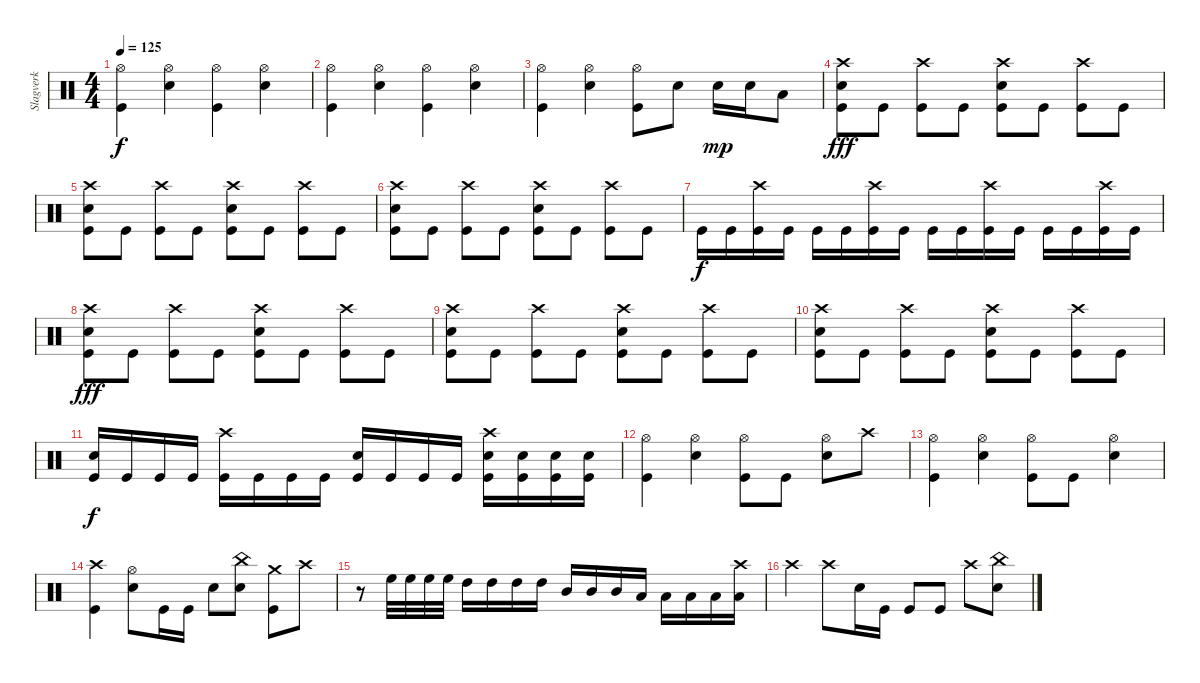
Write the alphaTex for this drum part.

\track ("Slagverk" "Slagverk") {instrument percussion}
\staff {score}
\articulation defaults
\ts (4 4)
\tempo 125
\clef neutral
\ks c
("Hi-Hat (open)" "Kick (hit)").4{dy f} ("Hi-Hat (open)" "Snare (hit) 2").4 ("Hi-Hat (open)" "Kick (hit)").4 ("Hi-Hat (open)" "Snare (hit) 2").4 |
("Hi-Hat (open)" "Kick (hit)").4 ("Hi-Hat (open)" "Snare (hit) 2").4 ("Hi-Hat (open)" "Kick (hit)").4 ("Hi-Hat (open)" "Snare (hit) 2").4 |
("Hi-Hat (open)" "Kick (hit)").4 ("Hi-Hat (open)" "Snare (hit) 2").4 ("Hi-Hat (open)" "Kick (hit)").8 "Snare (hit) 2".8 "Snare (hit) 2".16{dy mp} "Snare (hit) 2".16 "Low Floor Tom (hit)".8 |
("Crash high (hit)" "Snare (hit) 2" "Kick (hit)").8{dy fff} "Kick (hit)".8 ("Crash high (hit)" "Kick (hit)").8 "Kick (hit)".8 ("Crash high (hit)" "Snare (hit) 2" "Kick (hit)").8 "Kick (hit)".8 ("Crash high (hit)" "Kick (hit)").8 "Kick (hit)".8 |
("Crash high (hit)" "Snare (hit) 2" "Kick (hit)").8 "Kick (hit)".8 ("Crash high (hit)" "Kick (hit)").8 "Kick (hit)".8 ("Crash high (hit)" "Snare (hit) 2" "Kick (hit)").8 "Kick (hit)".8 ("Crash high (hit)" "Kick (hit)").8 "Kick (hit)".8 |
("Crash high (hit)" "Snare (hit) 2" "Kick (hit)").8 "Kick (hit)".8 ("Crash high (hit)" "Kick (hit)").8 "Kick (hit)".8 ("Crash high (hit)" "Snare (hit) 2" "Kick (hit)").8 "Kick (hit)".8 ("Crash high (hit)" "Kick (hit)").8 "Kick (hit)".8 |
"Kick (hit)".16{dy f} "Kick (hit)".16 ("Crash high (hit)" "Kick (hit)").16 "Kick (hit)".16 "Kick (hit)".16 "Kick (hit)".16 ("Crash high (hit)" "Kick (hit)").16 "Kick (hit)".16 "Kick (hit)".16 "Kick (hit)".16 ("Crash high (hit)" "Kick (hit)").16 "Kick (hit)".16 "Kick (hit)".16 "Kick (hit)".16 ("Crash high (hit)" "Kick (hit)").16 "Kick (hit)".16 |
("Crash high (hit)" "Snare (hit) 2" "Kick (hit)").8{dy fff} "Kick (hit)".8 ("Crash high (hit)" "Kick (hit)").8 "Kick (hit)".8 ("Crash high (hit)" "Snare (hit) 2" "Kick (hit)").8 "Kick (hit)".8 ("Crash high (hit)" "Kick (hit)").8 "Kick (hit)".8 |
("Crash high (hit)" "Snare (hit) 2" "Kick (hit)").8 "Kick (hit)".8 ("Crash high (hit)" "Kick (hit)").8 "Kick (hit)".8 ("Crash high (hit)" "Snare (hit) 2" "Kick (hit)").8 "Kick (hit)".8 ("Crash high (hit)" "Kick (hit)").8 "Kick (hit)".8 |
("Crash high (hit)" "Snare (hit) 2" "Kick (hit)").8 "Kick (hit)".8 ("Crash high (hit)" "Kick (hit)").8 "Kick (hit)".8 ("Crash high (hit)" "Snare (hit) 2" "Kick (hit)").8 "Kick (hit)".8 ("Crash high (hit)" "Kick (hit)").8 "Kick (hit)".8 |
("Snare (hit) 2" "Kick (hit)").16{dy f} "Kick (hit)".16 "Kick (hit)".16 "Kick (hit)".16 ("Crash high (hit)" "Kick (hit)").16 "Kick (hit)".16 "Kick (hit)".16 "Kick (hit)".16 ("Snare (hit) 2" "Kick (hit)").16 "Kick (hit)".16 "Kick (hit)".16 "Kick (hit)".16 ("Crash high (hit)" "Snare (hit) 2" "Kick (hit)").16 ("Snare (hit) 2" "Kick (hit)").16 ("Snare (hit) 2" "Kick (hit)").16 ("Snare (hit) 2" "Kick (hit)").16 |
("Hi-Hat (open)" "Kick (hit)").4 ("Hi-Hat (open)" "Snare (hit) 2").4 ("Hi-Hat (open)" "Kick (hit)").8 "Kick (hit)".8 ("Hi-Hat (open)" "Snare (hit) 2").8 "Crash high (hit)".8 |
("Hi-Hat (open)" "Kick (hit)").4 ("Hi-Hat (open)" "Snare (hit) 2").4 ("Hi-Hat (open)" "Kick (hit)").8 "Kick (hit)".8 ("Hi-Hat (open)" "Snare (hit) 2").4 |
("Crash high (hit)" "Kick (hit)").4 ("Hi-Hat (open)" "Snare (hit) 2").8 "Kick (hit)".16 "Kick (hit)".16 "Snare (hit) 2".8 ("China (hit)" "Snare (hit) 2").8 ("Crash medium (hit)" "Kick (hit)").8 "Crash high (hit)".8 |
r.8 "High Floor Tom (hit)".32 "High Floor Tom (hit)".32 "High Floor Tom (hit)".32 "High Floor Tom (hit)".32 "High Tom (hit)".16 "High Tom (hit)".16 "High Tom (hit)".16 "High Tom (hit)".16 "Mid Tom (hit)".16 "Mid Tom (hit)".16 "Mid Tom (hit)".16 "Low Tom (hit)".16 "Low Tom (hit)".16 "Low Tom (hit)".16 "Low Floor Tom (hit)".16 ("Crash high (hit)" "Low Floor Tom (hit)").16 |
"Crash high (hit)".4 "Crash high (hit)".8 "Snare (hit) 2".16 "Kick (hit)".16 "Kick (hit)".8 "Kick (hit)".8 "Crash high (hit)".8 ("China (hit)" "Snare (hit) 2").8
